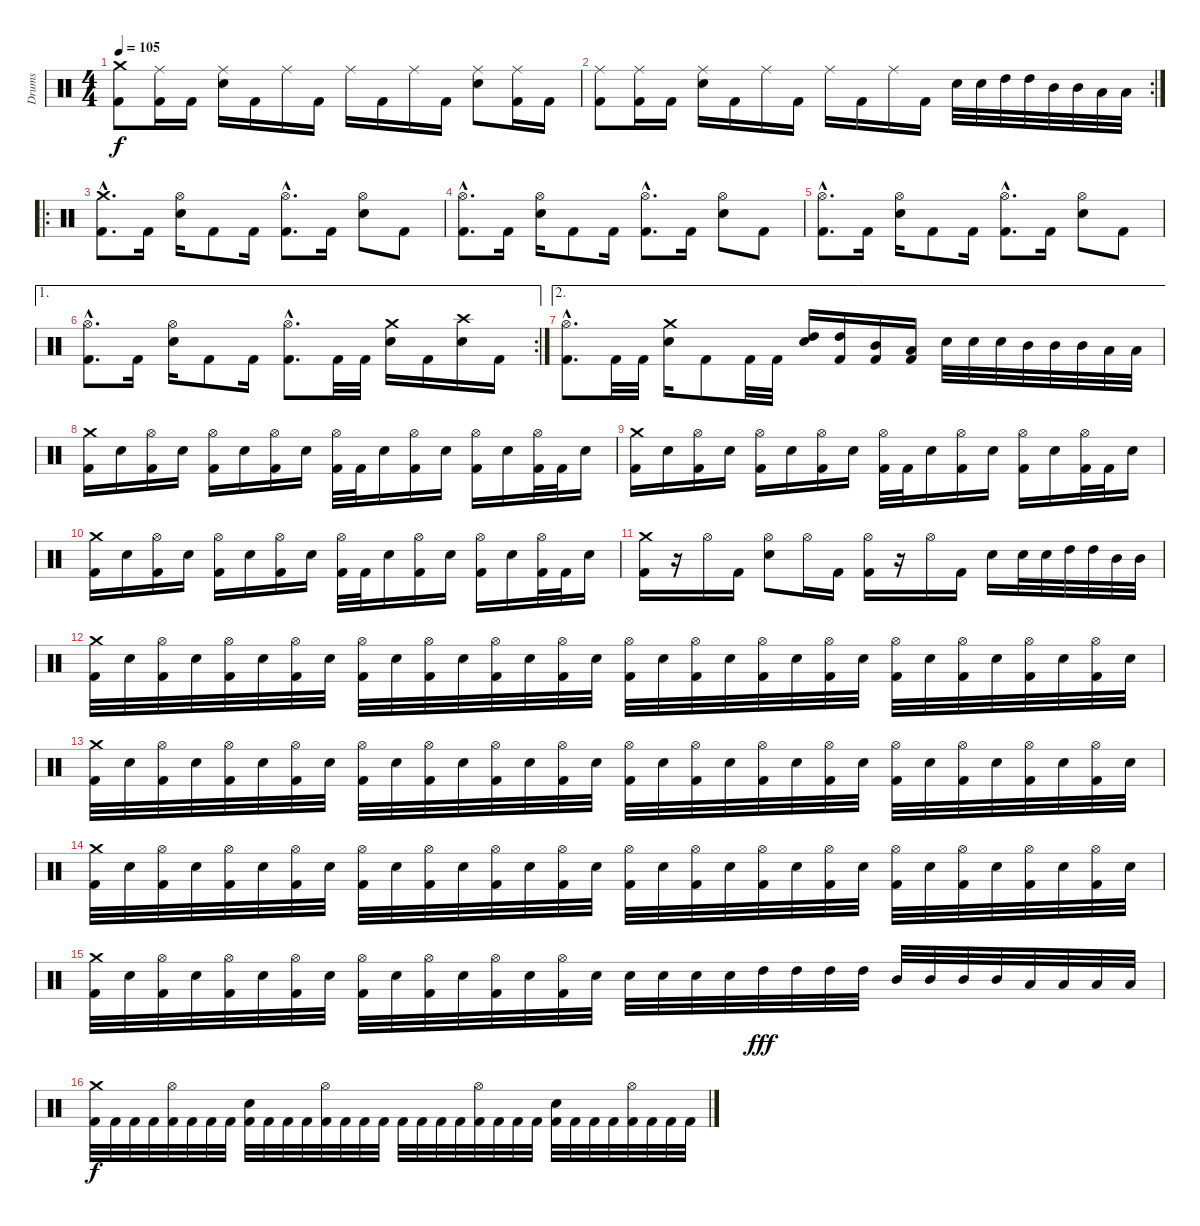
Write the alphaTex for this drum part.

\track ("Drums" "Drums") {instrument percussion}
\staff {score}
\articulation defaults
\ts (4 4)
\tempo 105
\clef neutral
\ks c
("Kick (hit) 2" "Crash medium (hit)").8{dy f} ("Kick (hit) 2" "Ride (middle)").16 "Kick (hit) 2".16 ("Electric Snare (hit)" "Ride (middle)").16 "Kick (hit) 2".16 "Ride (middle)".16 "Kick (hit) 2".16 "Ride (middle)".16 "Kick (hit) 2".16 "Ride (middle)".16 "Kick (hit) 2".16 ("Electric Snare (hit)" "Ride (middle)").8 ("Kick (hit) 2" "Ride (middle)").16 "Kick (hit) 2".16 |
\rc 2
("Kick (hit) 2" "Ride (middle)").8 ("Kick (hit) 2" "Ride (middle)").16 "Kick (hit) 2".16 ("Electric Snare (hit)" "Ride (middle)").16 "Kick (hit) 2".16 "Ride (middle)".16 "Kick (hit) 2".16 "Ride (middle)".16 "Kick (hit) 2".16 "Ride (middle)".16 "Kick (hit) 2".16 "Electric Snare (hit)".32 "Electric Snare (hit)".32 "High Tom (hit)".32 "High Tom (hit)".32 "Mid Tom (hit)".32 "Mid Tom (hit)".32 "Low Tom (hit)".32 "Low Tom (hit)".32 |
\ro
("Kick (hit) 2"{hac} "Crash medium (hit)"{hac}).8{d} "Kick (hit) 2".16 ("Electric Snare (hit)" "Hi-Hat (open)").16 "Kick (hit) 2".8 "Kick (hit) 2".16 ("Kick (hit) 2"{hac} "Hi-Hat (open)"{hac}).8{d} "Kick (hit) 2".16 ("Electric Snare (hit)" "Hi-Hat (open)").8 "Kick (hit) 2".8 |
("Kick (hit) 2"{hac} "Hi-Hat (open)"{hac}).8{d} "Kick (hit) 2".16 ("Electric Snare (hit)" "Hi-Hat (open)").16 "Kick (hit) 2".8 "Kick (hit) 2".16 ("Kick (hit) 2"{hac} "Hi-Hat (open)"{hac}).8{d} "Kick (hit) 2".16 ("Electric Snare (hit)" "Hi-Hat (open)").8 "Kick (hit) 2".8 |
("Kick (hit) 2"{hac} "Hi-Hat (open)"{hac}).8{d} "Kick (hit) 2".16 ("Electric Snare (hit)" "Hi-Hat (open)").16 "Kick (hit) 2".8 "Kick (hit) 2".16 ("Kick (hit) 2"{hac} "Hi-Hat (open)"{hac}).8{d} "Kick (hit) 2".16 ("Electric Snare (hit)" "Hi-Hat (open)").8 "Kick (hit) 2".8 |
\ae 1
\rc 2
("Kick (hit) 2"{hac} "Hi-Hat (open)"{hac}).8{d} "Kick (hit) 2".16 ("Electric Snare (hit)" "Hi-Hat (open)").16 "Kick (hit) 2".8 "Kick (hit) 2".16 ("Kick (hit) 2"{hac} "Hi-Hat (open)"{hac}).8{d} "Kick (hit) 2".32 "Kick (hit) 2".32 ("Electric Snare (hit)" "Crash medium (hit)").16 "Kick (hit) 2".16 ("Electric Snare (hit)" "Crash high (hit)").16 "Kick (hit) 2".16 |
\ae 2
("Kick (hit) 2"{hac} "Hi-Hat (open)"{hac}).8{d} "Kick (hit) 2".32 "Kick (hit) 2".32 ("Electric Snare (hit)" "Crash medium (hit)").16 "Kick (hit) 2".8 "Kick (hit) 2".32 "Kick (hit) 2".32 ("Electric Snare (hit)" "High Tom (hit)").16 ("Kick (hit) 2" "High Tom (hit)").16 ("Kick (hit) 2" "Mid Tom (hit)").16 ("Kick (hit) 2" "Low Tom (hit)").16 "Electric Snare (hit)".32 "Electric Snare (hit)".32 "Electric Snare (hit)".32 "Mid Tom (hit)".32 "Mid Tom (hit)".32 "Mid Tom (hit)".32 "Low Tom (hit)".32 "Low Tom (hit)".32 |
("Kick (hit) 2" "Crash medium (hit)").16 "Electric Snare (hit)".16 ("Kick (hit) 2" "Hi-Hat (open)").16 "Electric Snare (hit)".16 ("Kick (hit) 2" "Hi-Hat (open)").16 "Electric Snare (hit)".16 ("Kick (hit) 2" "Hi-Hat (open)").16 "Electric Snare (hit)".16 ("Kick (hit) 2" "Hi-Hat (open)").32 "Kick (hit) 2".32 "Electric Snare (hit)".16 ("Kick (hit) 2" "Hi-Hat (open)").16 "Electric Snare (hit)".16 ("Kick (hit) 2" "Hi-Hat (open)").16 "Electric Snare (hit)".16 ("Kick (hit) 2" "Hi-Hat (open)").32 "Kick (hit) 2".32 "Electric Snare (hit)".16 |
("Kick (hit) 2" "Crash medium (hit)").16 "Electric Snare (hit)".16 ("Kick (hit) 2" "Hi-Hat (open)").16 "Electric Snare (hit)".16 ("Kick (hit) 2" "Hi-Hat (open)").16 "Electric Snare (hit)".16 ("Kick (hit) 2" "Hi-Hat (open)").16 "Electric Snare (hit)".16 ("Kick (hit) 2" "Hi-Hat (open)").32 "Kick (hit) 2".32 "Electric Snare (hit)".16 ("Kick (hit) 2" "Hi-Hat (open)").16 "Electric Snare (hit)".16 ("Kick (hit) 2" "Hi-Hat (open)").16 "Electric Snare (hit)".16 ("Kick (hit) 2" "Hi-Hat (open)").32 "Kick (hit) 2".32 "Electric Snare (hit)".16 |
("Kick (hit) 2" "Crash medium (hit)").16 "Electric Snare (hit)".16 ("Kick (hit) 2" "Hi-Hat (open)").16 "Electric Snare (hit)".16 ("Kick (hit) 2" "Hi-Hat (open)").16 "Electric Snare (hit)".16 ("Kick (hit) 2" "Hi-Hat (open)").16 "Electric Snare (hit)".16 ("Kick (hit) 2" "Hi-Hat (open)").32 "Kick (hit) 2".32 "Electric Snare (hit)".16 ("Kick (hit) 2" "Hi-Hat (open)").16 "Electric Snare (hit)".16 ("Kick (hit) 2" "Hi-Hat (open)").16 "Electric Snare (hit)".16 ("Kick (hit) 2" "Hi-Hat (open)").32 "Kick (hit) 2".32 "Electric Snare (hit)".16 |
("Kick (hit) 2" "Crash medium (hit)").16 r.16 "Hi-Hat (open)".16 "Kick (hit) 2".16 ("Electric Snare (hit)" "Hi-Hat (open)").8 "Hi-Hat (open)".16 "Kick (hit) 2".16 ("Kick (hit) 2" "Hi-Hat (open)").16 r.16 "Hi-Hat (open)".16 "Kick (hit) 2".16 "Electric Snare (hit)".16 "Electric Snare (hit)".32 "Electric Snare (hit)".32 "High Tom (hit)".32 "High Tom (hit)".32 "Mid Tom (hit)".32 "Mid Tom (hit)".32 |
("Kick (hit) 2" "Crash medium (hit)").32 "Electric Snare (hit)".32 ("Kick (hit) 2" "Hi-Hat (open)").32 "Electric Snare (hit)".32 ("Kick (hit) 2" "Hi-Hat (open)").32 "Electric Snare (hit)".32 ("Kick (hit) 2" "Hi-Hat (open)").32 "Electric Snare (hit)".32 ("Kick (hit) 2" "Hi-Hat (open)").32 "Electric Snare (hit)".32 ("Kick (hit) 2" "Hi-Hat (open)").32 "Electric Snare (hit)".32 ("Kick (hit) 2" "Hi-Hat (open)").32 "Electric Snare (hit)".32 ("Kick (hit) 2" "Hi-Hat (open)").32 "Electric Snare (hit)".32 ("Kick (hit) 2" "Hi-Hat (open)").32 "Electric Snare (hit)".32 ("Kick (hit) 2" "Hi-Hat (open)").32 "Electric Snare (hit)".32 ("Kick (hit) 2" "Hi-Hat (open)").32 "Electric Snare (hit)".32 ("Kick (hit) 2" "Hi-Hat (open)").32 "Electric Snare (hit)".32 ("Kick (hit) 2" "Hi-Hat (open)").32 "Electric Snare (hit)".32 ("Kick (hit) 2" "Hi-Hat (open)").32 "Electric Snare (hit)".32 ("Kick (hit) 2" "Hi-Hat (open)").32 "Electric Snare (hit)".32 ("Kick (hit) 2" "Hi-Hat (open)").32 "Electric Snare (hit)".32 |
("Kick (hit) 2" "Crash medium (hit)").32 "Electric Snare (hit)".32 ("Kick (hit) 2" "Hi-Hat (open)").32 "Electric Snare (hit)".32 ("Kick (hit) 2" "Hi-Hat (open)").32 "Electric Snare (hit)".32 ("Kick (hit) 2" "Hi-Hat (open)").32 "Electric Snare (hit)".32 ("Kick (hit) 2" "Hi-Hat (open)").32 "Electric Snare (hit)".32 ("Kick (hit) 2" "Hi-Hat (open)").32 "Electric Snare (hit)".32 ("Kick (hit) 2" "Hi-Hat (open)").32 "Electric Snare (hit)".32 ("Kick (hit) 2" "Hi-Hat (open)").32 "Electric Snare (hit)".32 ("Kick (hit) 2" "Hi-Hat (open)").32 "Electric Snare (hit)".32 ("Kick (hit) 2" "Hi-Hat (open)").32 "Electric Snare (hit)".32 ("Kick (hit) 2" "Hi-Hat (open)").32 "Electric Snare (hit)".32 ("Kick (hit) 2" "Hi-Hat (open)").32 "Electric Snare (hit)".32 ("Kick (hit) 2" "Hi-Hat (open)").32 "Electric Snare (hit)".32 ("Kick (hit) 2" "Hi-Hat (open)").32 "Electric Snare (hit)".32 ("Kick (hit) 2" "Hi-Hat (open)").32 "Electric Snare (hit)".32 ("Kick (hit) 2" "Hi-Hat (open)").32 "Electric Snare (hit)".32 |
("Kick (hit) 2" "Crash medium (hit)").32 "Electric Snare (hit)".32 ("Kick (hit) 2" "Hi-Hat (open)").32 "Electric Snare (hit)".32 ("Kick (hit) 2" "Hi-Hat (open)").32 "Electric Snare (hit)".32 ("Kick (hit) 2" "Hi-Hat (open)").32 "Electric Snare (hit)".32 ("Kick (hit) 2" "Hi-Hat (open)").32 "Electric Snare (hit)".32 ("Kick (hit) 2" "Hi-Hat (open)").32 "Electric Snare (hit)".32 ("Kick (hit) 2" "Hi-Hat (open)").32 "Electric Snare (hit)".32 ("Kick (hit) 2" "Hi-Hat (open)").32 "Electric Snare (hit)".32 ("Kick (hit) 2" "Hi-Hat (open)").32 "Electric Snare (hit)".32 ("Kick (hit) 2" "Hi-Hat (open)").32 "Electric Snare (hit)".32 ("Kick (hit) 2" "Hi-Hat (open)").32 "Electric Snare (hit)".32 ("Kick (hit) 2" "Hi-Hat (open)").32 "Electric Snare (hit)".32 ("Kick (hit) 2" "Hi-Hat (open)").32 "Electric Snare (hit)".32 ("Kick (hit) 2" "Hi-Hat (open)").32 "Electric Snare (hit)".32 ("Kick (hit) 2" "Hi-Hat (open)").32 "Electric Snare (hit)".32 ("Kick (hit) 2" "Hi-Hat (open)").32 "Electric Snare (hit)".32 |
("Kick (hit) 2" "Crash medium (hit)").32 "Electric Snare (hit)".32 ("Kick (hit) 2" "Hi-Hat (open)").32 "Electric Snare (hit)".32 ("Kick (hit) 2" "Hi-Hat (open)").32 "Electric Snare (hit)".32 ("Kick (hit) 2" "Hi-Hat (open)").32 "Electric Snare (hit)".32 ("Kick (hit) 2" "Hi-Hat (open)").32 "Electric Snare (hit)".32 ("Kick (hit) 2" "Hi-Hat (open)").32 "Electric Snare (hit)".32 ("Kick (hit) 2" "Hi-Hat (open)").32 "Electric Snare (hit)".32 ("Kick (hit) 2" "Hi-Hat (open)").32 "Electric Snare (hit)".32 "Electric Snare (hit)".32 "Electric Snare (hit)".32 "Electric Snare (hit)".32 "Electric Snare (hit)".32 "High Tom (hit)".32{dy fff} "High Tom (hit)".32 "High Tom (hit)".32 "High Tom (hit)".32 "Mid Tom (hit)".32 "Mid Tom (hit)".32 "Mid Tom (hit)".32 "Mid Tom (hit)".32 "Low Tom (hit)".32 "Low Tom (hit)".32 "Low Tom (hit)".32 "Low Tom (hit)".32 |
("Kick (hit) 2" "Crash medium (hit)").32{dy f} "Kick (hit) 2".32 "Kick (hit) 2".32 "Kick (hit) 2".32 ("Kick (hit) 2" "Hi-Hat (open)").32 "Kick (hit) 2".32 "Kick (hit) 2".32 "Kick (hit) 2".32 ("Kick (hit) 2" "Electric Snare (hit)").32 "Kick (hit) 2".32 "Kick (hit) 2".32 "Kick (hit) 2".32 ("Kick (hit) 2" "Hi-Hat (open)").32 "Kick (hit) 2".32 "Kick (hit) 2".32 "Kick (hit) 2".32 "Kick (hit) 2".32 "Kick (hit) 2".32 "Kick (hit) 2".32 "Kick (hit) 2".32 ("Kick (hit) 2" "Hi-Hat (open)").32 "Kick (hit) 2".32 "Kick (hit) 2".32 "Kick (hit) 2".32 ("Kick (hit) 2" "Electric Snare (hit)").32 "Kick (hit) 2".32 "Kick (hit) 2".32 "Kick (hit) 2".32 ("Kick (hit) 2" "Hi-Hat (open)").32 "Kick (hit) 2".32 "Kick (hit) 2".32 "Kick (hit) 2".32
